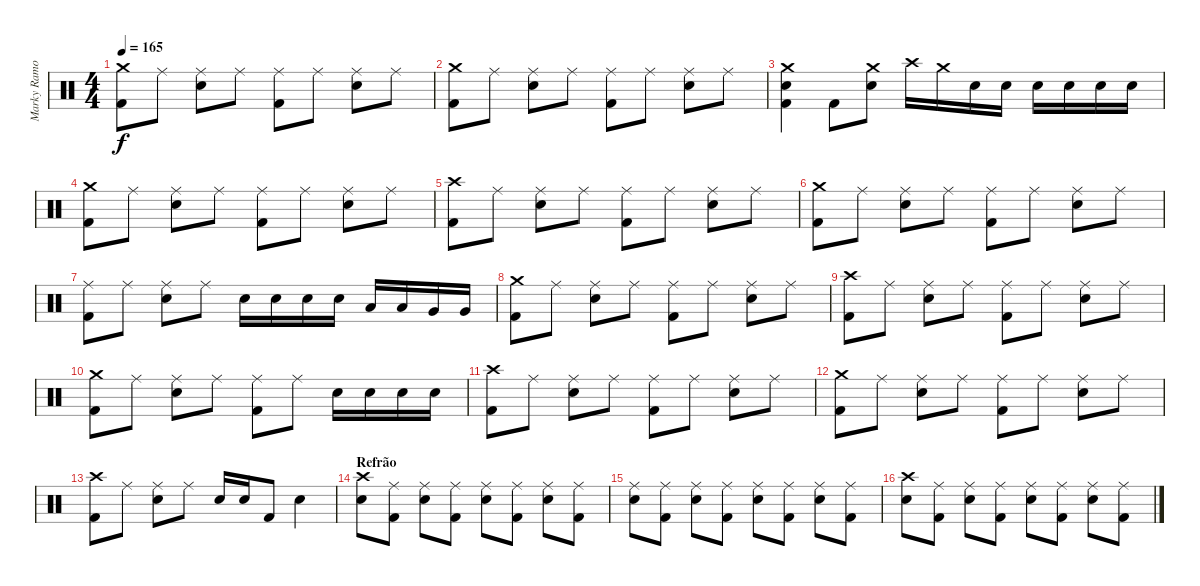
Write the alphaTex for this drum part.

\track ("Marky Ramone, o Próprio" "Marky Ramo") {instrument percussion}
\staff {score}
\articulation defaults
\ts (4 4)
\tempo 165
\clef neutral
\ks c
("Crash medium (hit)" "Kick (hit) 2").8{dy f} "Ride (middle)".8 ("Ride (middle)" "Electric Snare (hit)").8 "Ride (middle)".8 ("Ride (middle)" "Kick (hit) 2").8 "Ride (middle)".8 ("Ride (middle)" "Electric Snare (hit)").8 "Ride (middle)".8 |
("Crash medium (hit)" "Kick (hit) 2").8 "Ride (middle)".8 ("Ride (middle)" "Electric Snare (hit)").8 "Ride (middle)".8 ("Ride (middle)" "Kick (hit) 2").8 "Ride (middle)".8 ("Ride (middle)" "Electric Snare (hit)").8 "Ride (middle)".8 |
("Crash medium (hit)" "Electric Snare (hit)" "Kick (hit) 2").4 "Kick (hit) 2".8 ("Crash medium (hit)" "Electric Snare (hit)").8 "Crash high (hit)".16 "Crash medium (hit)".16 "Electric Snare (hit)".16 "Electric Snare (hit)".16 "Electric Snare (hit)".16 "Electric Snare (hit)".16 "Electric Snare (hit)".16 "Electric Snare (hit)".16 |
("Crash medium (hit)" "Kick (hit) 2").8 "Ride (middle)".8 ("Ride (middle)" "Electric Snare (hit)").8 "Ride (middle)".8 ("Ride (middle)" "Kick (hit) 2").8 "Ride (middle)".8 ("Ride (middle)" "Electric Snare (hit)").8 "Ride (middle)".8 |
("Crash high (hit)" "Kick (hit) 2").8 "Ride (middle)".8 ("Ride (middle)" "Electric Snare (hit)").8 "Ride (middle)".8 ("Ride (middle)" "Kick (hit) 2").8 "Ride (middle)".8 ("Ride (middle)" "Electric Snare (hit)").8 "Ride (middle)".8 |
("Crash medium (hit)" "Kick (hit) 2").8 "Ride (middle)".8 ("Ride (middle)" "Electric Snare (hit)").8 "Ride (middle)".8 ("Ride (middle)" "Kick (hit) 2").8 "Ride (middle)".8 ("Ride (middle)" "Electric Snare (hit)").8 "Ride (middle)".8 |
("Ride (middle)" "Kick (hit) 2").8 "Ride (middle)".8 ("Ride (middle)" "Electric Snare (hit)").8 "Ride (middle)".8 "Electric Snare (hit)".16 "Electric Snare (hit)".16 "Electric Snare (hit)".16 "Electric Snare (hit)".16 "Low Tom (hit)".16 "Low Tom (hit)".16 "Very Low Tom (hit)".16 "Very Low Tom (hit)".16 |
("Crash medium (hit)" "Kick (hit) 2").8 "Ride (middle)".8 ("Ride (middle)" "Electric Snare (hit)").8 "Ride (middle)".8 ("Ride (middle)" "Kick (hit) 2").8 "Ride (middle)".8 ("Ride (middle)" "Electric Snare (hit)").8 "Ride (middle)".8 |
("Crash high (hit)" "Kick (hit) 2").8 "Ride (middle)".8 ("Ride (middle)" "Electric Snare (hit)").8 "Ride (middle)".8 ("Ride (middle)" "Kick (hit) 2").8 "Ride (middle)".8 ("Ride (middle)" "Electric Snare (hit)").8 "Ride (middle)".8 |
("Crash medium (hit)" "Kick (hit) 2").8 "Ride (middle)".8 ("Ride (middle)" "Electric Snare (hit)").8 "Ride (middle)".8 ("Ride (middle)" "Kick (hit) 2").8 "Ride (middle)".8 "Electric Snare (hit)".16 "Electric Snare (hit)".16 "Electric Snare (hit)".16 "Electric Snare (hit)".16 |
("Crash high (hit)" "Kick (hit) 2").8 "Ride (middle)".8 ("Ride (middle)" "Electric Snare (hit)").8 "Ride (middle)".8 ("Ride (middle)" "Kick (hit) 2").8 "Ride (middle)".8 ("Ride (middle)" "Electric Snare (hit)").8 "Ride (middle)".8 |
("Crash medium (hit)" "Kick (hit) 2").8 "Ride (middle)".8 ("Ride (middle)" "Electric Snare (hit)").8 "Ride (middle)".8 ("Ride (middle)" "Kick (hit) 2").8 "Ride (middle)".8 ("Ride (middle)" "Electric Snare (hit)").8 "Ride (middle)".8 |
("Crash high (hit)" "Kick (hit) 2").8 "Ride (middle)".8 ("Ride (middle)" "Electric Snare (hit)").8 "Ride (middle)".8 "Electric Snare (hit)".16 "Electric Snare (hit)".16 "Kick (hit) 2".8 "Electric Snare (hit)".4 |
\section ("" "Refrão")
("Crash high (hit)" "Electric Snare (hit)").8 ("Ride (middle)" "Kick (hit) 2").8 ("Ride (middle)" "Electric Snare (hit)").8 ("Ride (middle)" "Kick (hit) 2").8 ("Ride (middle)" "Electric Snare (hit)").8 ("Ride (middle)" "Kick (hit) 2").8 ("Ride (middle)" "Electric Snare (hit)").8 ("Ride (middle)" "Kick (hit) 2").8 |
("Ride (middle)" "Electric Snare (hit)").8 ("Ride (middle)" "Kick (hit) 2").8 ("Ride (middle)" "Electric Snare (hit)").8 ("Ride (middle)" "Kick (hit) 2").8 ("Ride (middle)" "Electric Snare (hit)").8 ("Ride (middle)" "Kick (hit) 2").8 ("Ride (middle)" "Electric Snare (hit)").8 ("Ride (middle)" "Kick (hit) 2").8 |
("Crash high (hit)" "Electric Snare (hit)").8 ("Ride (middle)" "Kick (hit) 2").8 ("Ride (middle)" "Electric Snare (hit)").8 ("Ride (middle)" "Kick (hit) 2").8 ("Ride (middle)" "Electric Snare (hit)").8 ("Ride (middle)" "Kick (hit) 2").8 ("Ride (middle)" "Electric Snare (hit)").8 ("Ride (middle)" "Kick (hit) 2").8
